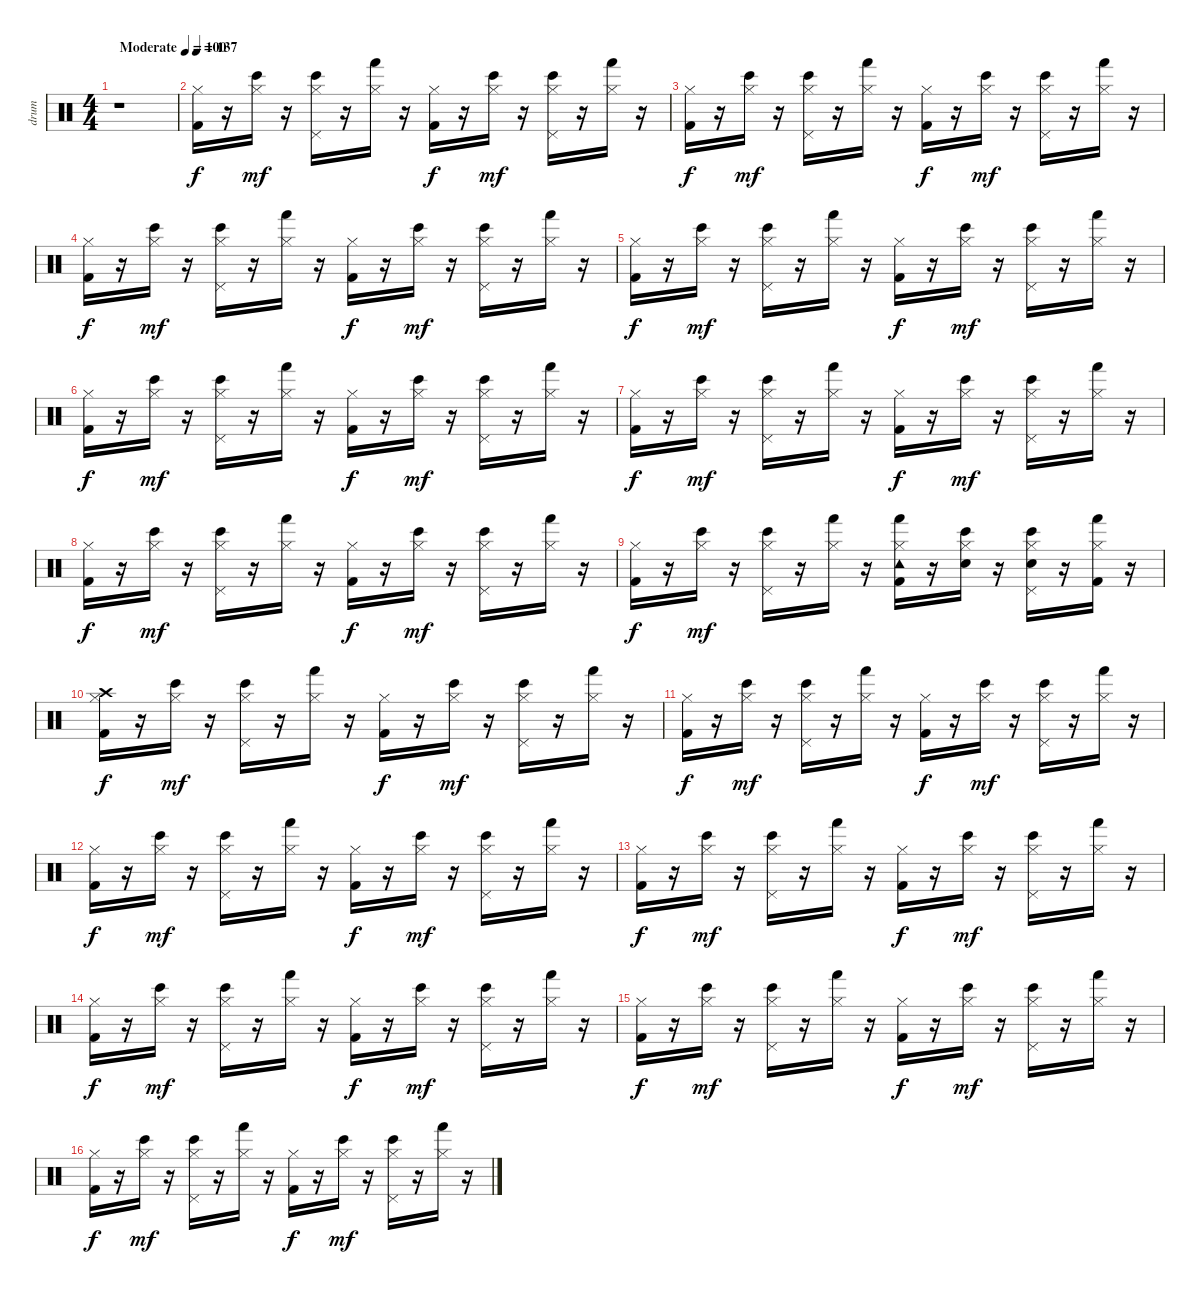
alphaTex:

\track ("drum" "drum") {instrument percussion}
\staff {score}
\articulation defaults
\ts (4 4)
\tempo (100 "Moderate")
\clef neutral
\ks c
r.1{dy f} |
\tempo 137
("Hi-Hat (closed)" "Kick (hit) 2").16 r.16 ("Hi-Hat (closed)" "Bongo High (hit)").16{dy mf} r.16 ("Bongo High (hit)" "Hi-Hat (closed)" "Pedal Hi-Hat (hit)").16 r.16 ("Hi-Hat (closed)" "Hand (hit)").16 r.16 ("Hi-Hat (closed)" "Kick (hit) 2").16{dy f} r.16 ("Bongo High (hit)" "Hi-Hat (closed)").16{dy mf} r.16 ("Hi-Hat (closed)" "Bongo High (hit)" "Pedal Hi-Hat (hit)").16 r.16 ("Hi-Hat (closed)" "Hand (hit)").16 r.16 |
("Hi-Hat (closed)" "Kick (hit) 2").16{dy f} r.16 ("Hi-Hat (closed)" "Bongo High (hit)").16{dy mf} r.16 ("Hi-Hat (closed)" "Bongo High (hit)" "Pedal Hi-Hat (hit)").16 r.16 ("Hand (hit)" "Hi-Hat (closed)").16 r.16 ("Hi-Hat (closed)" "Kick (hit) 2").16{dy f} r.16 ("Hi-Hat (closed)" "Bongo High (hit)").16{dy mf} r.16 ("Hi-Hat (closed)" "Bongo High (hit)" "Pedal Hi-Hat (hit)").16 r.16 ("Hi-Hat (closed)" "Hand (hit)").16 r.16 |
("Hi-Hat (closed)" "Kick (hit) 2").16{dy f} r.16 ("Hi-Hat (closed)" "Bongo High (hit)").16{dy mf} r.16 ("Hi-Hat (closed)" "Bongo High (hit)" "Pedal Hi-Hat (hit)").16 r.16 ("Hi-Hat (closed)" "Hand (hit)").16 r.16 ("Hi-Hat (closed)" "Kick (hit) 2").16{dy f} r.16 ("Hi-Hat (closed)" "Bongo High (hit)").16{dy mf} r.16 ("Bongo High (hit)" "Hi-Hat (closed)" "Pedal Hi-Hat (hit)").16 r.16 ("Hand (hit)" "Hi-Hat (closed)").16 r.16 |
("Kick (hit) 2" "Hi-Hat (closed)").16{dy f} r.16 ("Hi-Hat (closed)" "Bongo High (hit)").16{dy mf} r.16 ("Hi-Hat (closed)" "Bongo High (hit)" "Pedal Hi-Hat (hit)").16 r.16 ("Hi-Hat (closed)" "Hand (hit)").16 r.16 ("Kick (hit) 2" "Hi-Hat (closed)").16{dy f} r.16 ("Hi-Hat (closed)" "Bongo High (hit)").16{dy mf} r.16 ("Bongo High (hit)" "Hi-Hat (closed)" "Pedal Hi-Hat (hit)").16 r.16 ("Hi-Hat (closed)" "Hand (hit)").16 r.16 |
("Kick (hit) 2" "Hi-Hat (closed)").16{dy f} r.16 ("Bongo High (hit)" "Hi-Hat (closed)").16{dy mf} r.16 ("Bongo High (hit)" "Hi-Hat (closed)" "Pedal Hi-Hat (hit)").16 r.16 ("Hi-Hat (closed)" "Hand (hit)").16 r.16 ("Kick (hit) 2" "Hi-Hat (closed)").16{dy f} r.16 ("Bongo High (hit)" "Hi-Hat (closed)").16{dy mf} r.16 ("Bongo High (hit)" "Hi-Hat (closed)" "Pedal Hi-Hat (hit)").16 r.16 ("Hi-Hat (closed)" "Hand (hit)").16 r.16 |
("Kick (hit) 2" "Hi-Hat (closed)").16{dy f} r.16 ("Bongo High (hit)" "Hi-Hat (closed)").16{dy mf} r.16 ("Hi-Hat (closed)" "Bongo High (hit)" "Pedal Hi-Hat (hit)").16 r.16 ("Hand (hit)" "Hi-Hat (closed)").16 r.16 ("Hi-Hat (closed)" "Kick (hit) 2").16{dy f} r.16 ("Hi-Hat (closed)" "Bongo High (hit)").16{dy mf} r.16 ("Hi-Hat (closed)" "Bongo High (hit)" "Pedal Hi-Hat (hit)").16 r.16 ("Hi-Hat (closed)" "Hand (hit)").16 r.16 |
("Hi-Hat (closed)" "Kick (hit) 2").16{dy f} r.16 ("Hi-Hat (closed)" "Bongo High (hit)").16{dy mf} r.16 ("Bongo High (hit)" "Hi-Hat (closed)" "Pedal Hi-Hat (hit)").16 r.16 ("Hi-Hat (closed)" "Hand (hit)").16 r.16 ("Hi-Hat (closed)" "Kick (hit) 2").16{dy f} r.16 ("Bongo High (hit)" "Hi-Hat (closed)").16{dy mf} r.16 ("Bongo High (hit)" "Hi-Hat (closed)" "Pedal Hi-Hat (hit)").16 r.16 ("Hand (hit)" "Hi-Hat (closed)").16 r.16 |
("Kick (hit) 2" "Hi-Hat (closed)").16{dy f} r.16 ("Bongo High (hit)" "Hi-Hat (closed)").16{dy mf} r.16 ("Bongo High (hit)" "Hi-Hat (closed)" "Pedal Hi-Hat (hit)").16 r.16 ("Hi-Hat (closed)" "Hand (hit)").16 r.16 ("Hand (hit)" "Tambourine (hit)" "Hi-Hat (closed)" "Kick (hit) 2").16 r.16 ("Bongo High (hit)" "Snare (hit) 2" "Hi-Hat (closed)").16 r.16 ("Hi-Hat (closed)" "Bongo High (hit)" "Snare (hit) 2" "Pedal Hi-Hat (hit)").16 r.16 ("Kick (hit) 2" "Hi-Hat (closed)" "Hand (hit)").16 r.16 |
("Hi-Hat (closed)" "Kick (hit) 2" "Crash high (hit)").16{dy f} r.16 ("Hi-Hat (closed)" "Bongo High (hit)").16{dy mf} r.16 ("Hi-Hat (closed)" "Bongo High (hit)" "Pedal Hi-Hat (hit)").16 r.16 ("Hand (hit)" "Hi-Hat (closed)").16 r.16 ("Kick (hit) 2" "Hi-Hat (closed)").16{dy f} r.16 ("Hi-Hat (closed)" "Bongo High (hit)").16{dy mf} r.16 ("Bongo High (hit)" "Hi-Hat (closed)" "Pedal Hi-Hat (hit)").16 r.16 ("Hi-Hat (closed)" "Hand (hit)").16 r.16 |
("Hi-Hat (closed)" "Kick (hit) 2").16{dy f} r.16 ("Bongo High (hit)" "Hi-Hat (closed)").16{dy mf} r.16 ("Bongo High (hit)" "Hi-Hat (closed)" "Pedal Hi-Hat (hit)").16 r.16 ("Hand (hit)" "Hi-Hat (closed)").16 r.16 ("Hi-Hat (closed)" "Kick (hit) 2").16{dy f} r.16 ("Bongo High (hit)" "Hi-Hat (closed)").16{dy mf} r.16 ("Bongo High (hit)" "Hi-Hat (closed)" "Pedal Hi-Hat (hit)").16 r.16 ("Hand (hit)" "Hi-Hat (closed)").16 r.16 |
("Kick (hit) 2" "Hi-Hat (closed)").16{dy f} r.16 ("Hi-Hat (closed)" "Bongo High (hit)").16{dy mf} r.16 ("Hi-Hat (closed)" "Bongo High (hit)" "Pedal Hi-Hat (hit)").16 r.16 ("Hand (hit)" "Hi-Hat (closed)").16 r.16 ("Kick (hit) 2" "Hi-Hat (closed)").16{dy f} r.16 ("Hi-Hat (closed)" "Bongo High (hit)").16{dy mf} r.16 ("Hi-Hat (closed)" "Bongo High (hit)" "Pedal Hi-Hat (hit)").16 r.16 ("Hand (hit)" "Hi-Hat (closed)").16 r.16 |
("Kick (hit) 2" "Hi-Hat (closed)").16{dy f} r.16 ("Bongo High (hit)" "Hi-Hat (closed)").16{dy mf} r.16 ("Bongo High (hit)" "Hi-Hat (closed)" "Pedal Hi-Hat (hit)").16 r.16 ("Hand (hit)" "Hi-Hat (closed)").16 r.16 ("Hi-Hat (closed)" "Kick (hit) 2").16{dy f} r.16 ("Hi-Hat (closed)" "Bongo High (hit)").16{dy mf} r.16 ("Bongo High (hit)" "Hi-Hat (closed)" "Pedal Hi-Hat (hit)").16 r.16 ("Hi-Hat (closed)" "Hand (hit)").16 r.16 |
("Hi-Hat (closed)" "Kick (hit) 2").16{dy f} r.16 ("Bongo High (hit)" "Hi-Hat (closed)").16{dy mf} r.16 ("Hi-Hat (closed)" "Bongo High (hit)" "Pedal Hi-Hat (hit)").16 r.16 ("Hi-Hat (closed)" "Hand (hit)").16 r.16 ("Kick (hit) 2" "Hi-Hat (closed)").16{dy f} r.16 ("Bongo High (hit)" "Hi-Hat (closed)").16{dy mf} r.16 ("Bongo High (hit)" "Hi-Hat (closed)" "Pedal Hi-Hat (hit)").16 r.16 ("Hi-Hat (closed)" "Hand (hit)").16 r.16 |
("Kick (hit) 2" "Hi-Hat (closed)").16{dy f} r.16 ("Hi-Hat (closed)" "Bongo High (hit)").16{dy mf} r.16 ("Bongo High (hit)" "Hi-Hat (closed)" "Pedal Hi-Hat (hit)").16 r.16 ("Hand (hit)" "Hi-Hat (closed)").16 r.16 ("Hi-Hat (closed)" "Kick (hit) 2").16{dy f} r.16 ("Bongo High (hit)" "Hi-Hat (closed)").16{dy mf} r.16 ("Hi-Hat (closed)" "Bongo High (hit)" "Pedal Hi-Hat (hit)").16 r.16 ("Hand (hit)" "Hi-Hat (closed)").16 r.16 |
("Hi-Hat (closed)" "Kick (hit) 2").16{dy f} r.16 ("Hi-Hat (closed)" "Bongo High (hit)").16{dy mf} r.16 ("Hi-Hat (closed)" "Bongo High (hit)" "Pedal Hi-Hat (hit)").16 r.16 ("Hand (hit)" "Hi-Hat (closed)").16 r.16 ("Kick (hit) 2" "Hi-Hat (closed)").16{dy f} r.16 ("Bongo High (hit)" "Hi-Hat (closed)").16{dy mf} r.16 ("Hi-Hat (closed)" "Bongo High (hit)" "Pedal Hi-Hat (hit)").16 r.16 ("Hi-Hat (closed)" "Hand (hit)").16 r.16
